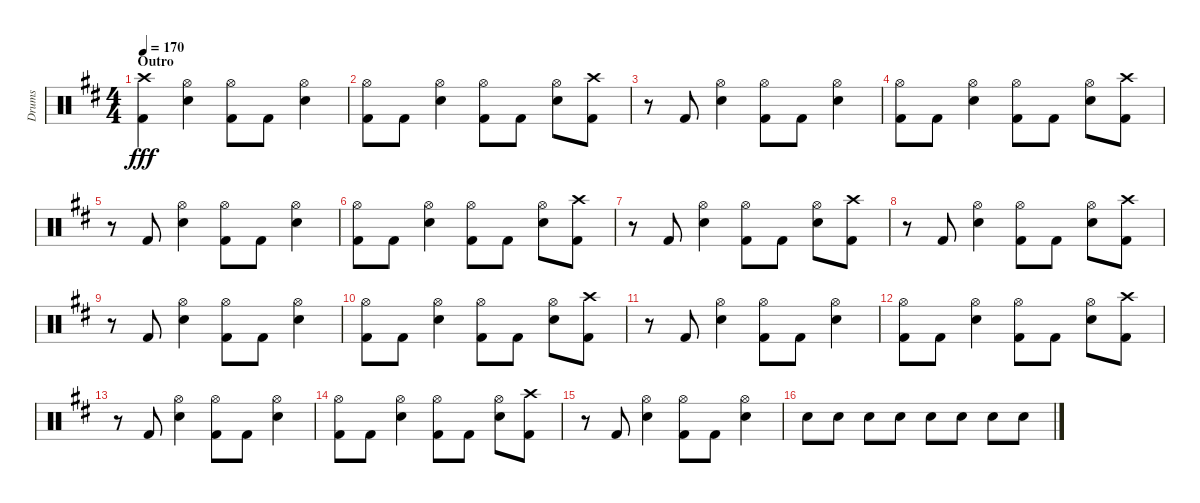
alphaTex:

\track ("Drums" "Drums") {instrument percussion}
\staff {score}
\articulation defaults
\ts (4 4)
\section ("" "Outro")
\tempo 170
\clef neutral
\ks bminor
("Crash high (hit)" "Kick (hit) 2").4{dy fff} ("Hi-Hat (open)" "Snare (hit) 2").4 ("Hi-Hat (open)" "Kick (hit) 2").8 "Kick (hit) 2".8 ("Hi-Hat (open)" "Snare (hit) 2").4 |
("Hi-Hat (open)" "Kick (hit) 2").8 "Kick (hit) 2".8 ("Hi-Hat (open)" "Snare (hit) 2").4 ("Hi-Hat (open)" "Kick (hit) 2").8 "Kick (hit) 2".8 ("Hi-Hat (open)" "Snare (hit) 2").8 ("Crash high (hit)" "Kick (hit) 2").8 |
r.8 "Kick (hit) 2".8 ("Hi-Hat (open)" "Snare (hit) 2").4 ("Hi-Hat (open)" "Kick (hit) 2").8 "Kick (hit) 2".8 ("Hi-Hat (open)" "Snare (hit) 2").4 |
("Hi-Hat (open)" "Kick (hit) 2").8 "Kick (hit) 2".8 ("Hi-Hat (open)" "Snare (hit) 2").4 ("Hi-Hat (open)" "Kick (hit) 2").8 "Kick (hit) 2".8 ("Hi-Hat (open)" "Snare (hit) 2").8 ("Crash high (hit)" "Kick (hit) 2").8 |
r.8 "Kick (hit) 2".8 ("Hi-Hat (open)" "Snare (hit) 2").4 ("Hi-Hat (open)" "Kick (hit) 2").8 "Kick (hit) 2".8 ("Hi-Hat (open)" "Snare (hit) 2").4 |
("Hi-Hat (open)" "Kick (hit) 2").8 "Kick (hit) 2".8 ("Hi-Hat (open)" "Snare (hit) 2").4 ("Hi-Hat (open)" "Kick (hit) 2").8 "Kick (hit) 2".8 ("Hi-Hat (open)" "Snare (hit) 2").8 ("Crash high (hit)" "Kick (hit) 2").8 |
r.8 "Kick (hit) 2".8 ("Hi-Hat (open)" "Snare (hit) 2").4 ("Hi-Hat (open)" "Kick (hit) 2").8 "Kick (hit) 2".8 ("Hi-Hat (open)" "Snare (hit) 2").8 ("Crash high (hit)" "Kick (hit) 2").8 |
r.8 "Kick (hit) 2".8 ("Hi-Hat (open)" "Snare (hit) 2").4 ("Hi-Hat (open)" "Kick (hit) 2").8 "Kick (hit) 2".8 ("Hi-Hat (open)" "Snare (hit) 2").8 ("Crash high (hit)" "Kick (hit) 2").8 |
r.8 "Kick (hit) 2".8 ("Hi-Hat (open)" "Snare (hit) 2").4 ("Hi-Hat (open)" "Kick (hit) 2").8 "Kick (hit) 2".8 ("Hi-Hat (open)" "Snare (hit) 2").4 |
("Hi-Hat (open)" "Kick (hit) 2").8 "Kick (hit) 2".8 ("Hi-Hat (open)" "Snare (hit) 2").4 ("Hi-Hat (open)" "Kick (hit) 2").8 "Kick (hit) 2".8 ("Hi-Hat (open)" "Snare (hit) 2").8 ("Crash high (hit)" "Kick (hit) 2").8 |
r.8 "Kick (hit) 2".8 ("Hi-Hat (open)" "Snare (hit) 2").4 ("Hi-Hat (open)" "Kick (hit) 2").8 "Kick (hit) 2".8 ("Hi-Hat (open)" "Snare (hit) 2").4 |
("Hi-Hat (open)" "Kick (hit) 2").8 "Kick (hit) 2".8 ("Hi-Hat (open)" "Snare (hit) 2").4 ("Hi-Hat (open)" "Kick (hit) 2").8 "Kick (hit) 2".8 ("Hi-Hat (open)" "Snare (hit) 2").8 ("Crash high (hit)" "Kick (hit) 2").8 |
r.8 "Kick (hit) 2".8 ("Hi-Hat (open)" "Snare (hit) 2").4 ("Hi-Hat (open)" "Kick (hit) 2").8 "Kick (hit) 2".8 ("Hi-Hat (open)" "Snare (hit) 2").4 |
("Hi-Hat (open)" "Kick (hit) 2").8 "Kick (hit) 2".8 ("Hi-Hat (open)" "Snare (hit) 2").4 ("Hi-Hat (open)" "Kick (hit) 2").8 "Kick (hit) 2".8 ("Hi-Hat (open)" "Snare (hit) 2").8 ("Crash high (hit)" "Kick (hit) 2").8 |
r.8 "Kick (hit) 2".8 ("Hi-Hat (open)" "Snare (hit) 2").4 ("Hi-Hat (open)" "Kick (hit) 2").8 "Kick (hit) 2".8 ("Hi-Hat (open)" "Snare (hit) 2").4 |
"Snare (hit) 2".8 "Snare (hit) 2".8 "Snare (hit) 2".8 "Snare (hit) 2".8 "Snare (hit) 2".8 "Snare (hit) 2".8 "Snare (hit) 2".8 "Snare (hit) 2".8
